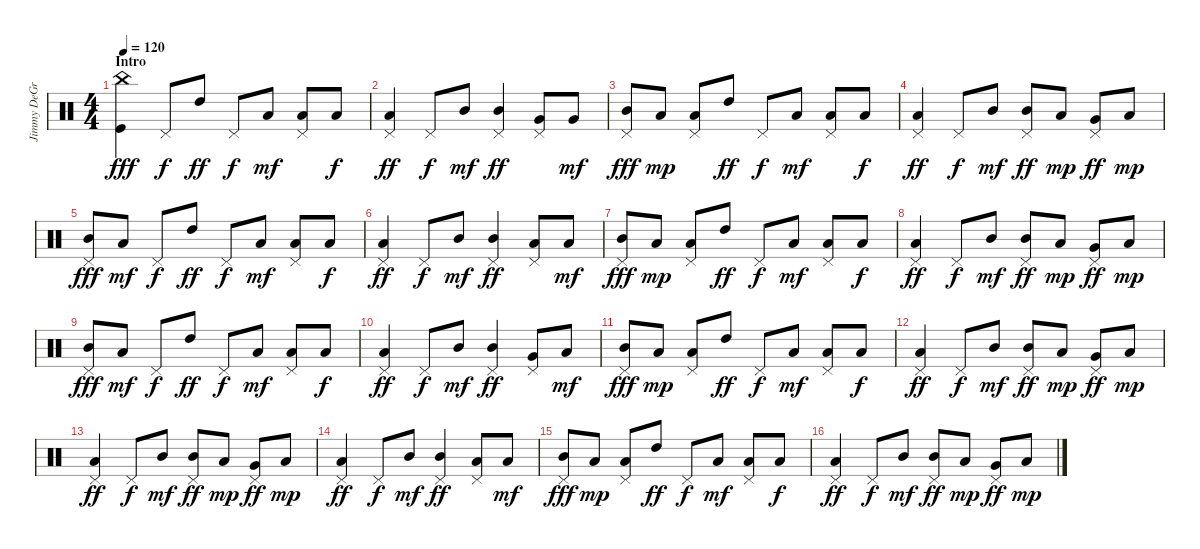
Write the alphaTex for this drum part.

\track ("Jimmy DeGrasso" "Jimmy DeGr") {instrument percussion}
\staff {score}
\articulation defaults
\ts (4 4)
\section ("" "Intro")
\tempo 120
\clef neutral
\ks c
("Kick (hit)" "China (hit)").4{dy fff} "Pedal Hi-Hat (hit)".8{dy f} "High Tom (hit)".8{dy ff} "Pedal Hi-Hat (hit)".8{dy f} "Low Floor Tom (hit)".8{dy mf} ("Low Floor Tom (hit)" "Pedal Hi-Hat (hit)").8 "Low Floor Tom (hit)".8{dy f} |
("Low Floor Tom (hit)" "Pedal Hi-Hat (hit)").4{dy ff} "Pedal Hi-Hat (hit)".8{dy f} "Mid Tom (hit)".8{dy mf} ("Mid Tom (hit)" "Pedal Hi-Hat (hit)").4{dy ff} ("Very Low Tom (hit)" "Pedal Hi-Hat (hit)").8 "Very Low Tom (hit)".8{dy mf} |
("Mid Tom (hit)" "Pedal Hi-Hat (hit)").8{dy fff} "Low Floor Tom (hit)".8{dy mp} ("Low Floor Tom (hit)" "Pedal Hi-Hat (hit)").8 "High Tom (hit)".8{dy ff} "Pedal Hi-Hat (hit)".8{dy f} "Low Floor Tom (hit)".8{dy mf} ("Low Floor Tom (hit)" "Pedal Hi-Hat (hit)").8 "Low Floor Tom (hit)".8{dy f} |
("Low Floor Tom (hit)" "Pedal Hi-Hat (hit)").4{dy ff} "Pedal Hi-Hat (hit)".8{dy f} "Mid Tom (hit)".8{dy mf} ("Mid Tom (hit)" "Pedal Hi-Hat (hit)").8{dy ff} "Low Floor Tom (hit)".8{dy mp} ("Very Low Tom (hit)" "Pedal Hi-Hat (hit)").8{dy ff} "Low Floor Tom (hit)".8{dy mp} |
("Mid Tom (hit)" "Pedal Hi-Hat (hit)").8{dy fff} "Low Floor Tom (hit)".8{dy mf} "Pedal Hi-Hat (hit)".8{dy f} "High Tom (hit)".8{dy ff} "Pedal Hi-Hat (hit)".8{dy f} "Low Floor Tom (hit)".8{dy mf} ("Low Floor Tom (hit)" "Pedal Hi-Hat (hit)").8 "Low Floor Tom (hit)".8{dy f} |
("Low Floor Tom (hit)" "Pedal Hi-Hat (hit)").4{dy ff} "Pedal Hi-Hat (hit)".8{dy f} "Mid Tom (hit)".8{dy mf} ("Mid Tom (hit)" "Pedal Hi-Hat (hit)").4{dy ff} ("Low Tom (hit)" "Pedal Hi-Hat (hit)").8 "Low Floor Tom (hit)".8{dy mf} |
("Mid Tom (hit)" "Pedal Hi-Hat (hit)").8{dy fff} "Low Floor Tom (hit)".8{dy mp} ("Low Floor Tom (hit)" "Pedal Hi-Hat (hit)").8 "High Tom (hit)".8{dy ff} "Pedal Hi-Hat (hit)".8{dy f} "Low Floor Tom (hit)".8{dy mf} ("Low Floor Tom (hit)" "Pedal Hi-Hat (hit)").8 "Low Floor Tom (hit)".8{dy f} |
("Low Floor Tom (hit)" "Pedal Hi-Hat (hit)").4{dy ff} "Pedal Hi-Hat (hit)".8{dy f} "Mid Tom (hit)".8{dy mf} ("Mid Tom (hit)" "Pedal Hi-Hat (hit)").8{dy ff} "Low Floor Tom (hit)".8{dy mp} ("Very Low Tom (hit)" "Pedal Hi-Hat (hit)").8{dy ff} "Low Floor Tom (hit)".8{dy mp} |
("Mid Tom (hit)" "Pedal Hi-Hat (hit)").8{dy fff} "Low Floor Tom (hit)".8{dy mf} "Pedal Hi-Hat (hit)".8{dy f} "High Tom (hit)".8{dy ff} "Pedal Hi-Hat (hit)".8{dy f} "Low Floor Tom (hit)".8{dy mf} ("Low Floor Tom (hit)" "Pedal Hi-Hat (hit)").8 "Low Floor Tom (hit)".8{dy f} |
("Low Floor Tom (hit)" "Pedal Hi-Hat (hit)").4{dy ff} "Pedal Hi-Hat (hit)".8{dy f} "Mid Tom (hit)".8{dy mf} ("Mid Tom (hit)" "Pedal Hi-Hat (hit)").4{dy ff} ("Very Low Tom (hit)" "Pedal Hi-Hat (hit)").8 "Low Floor Tom (hit)".8{dy mf} |
("Mid Tom (hit)" "Pedal Hi-Hat (hit)").8{dy fff} "Low Floor Tom (hit)".8{dy mp} ("Low Floor Tom (hit)" "Pedal Hi-Hat (hit)").8 "High Tom (hit)".8{dy ff} "Pedal Hi-Hat (hit)".8{dy f} "Low Floor Tom (hit)".8{dy mf} ("Low Floor Tom (hit)" "Pedal Hi-Hat (hit)").8 "Low Floor Tom (hit)".8{dy f} |
("Low Floor Tom (hit)" "Pedal Hi-Hat (hit)").4{dy ff} "Pedal Hi-Hat (hit)".8{dy f} "Mid Tom (hit)".8{dy mf} ("Mid Tom (hit)" "Pedal Hi-Hat (hit)").8{dy ff} "Low Floor Tom (hit)".8{dy mp} ("Very Low Tom (hit)" "Pedal Hi-Hat (hit)").8{dy ff} "Low Floor Tom (hit)".8{dy mp} |
("Low Floor Tom (hit)" "Pedal Hi-Hat (hit)").4{dy ff} "Pedal Hi-Hat (hit)".8{dy f} "Mid Tom (hit)".8{dy mf} ("Mid Tom (hit)" "Pedal Hi-Hat (hit)").8{dy ff} "Low Floor Tom (hit)".8{dy mp} ("Very Low Tom (hit)" "Pedal Hi-Hat (hit)").8{dy ff} "Low Floor Tom (hit)".8{dy mp} |
("Low Floor Tom (hit)" "Pedal Hi-Hat (hit)").4{dy ff} "Pedal Hi-Hat (hit)".8{dy f} "Mid Tom (hit)".8{dy mf} ("Mid Tom (hit)" "Pedal Hi-Hat (hit)").4{dy ff} ("Low Tom (hit)" "Pedal Hi-Hat (hit)").8 "Low Floor Tom (hit)".8{dy mf} |
("Mid Tom (hit)" "Pedal Hi-Hat (hit)").8{dy fff} "Low Floor Tom (hit)".8{dy mp} ("Low Floor Tom (hit)" "Pedal Hi-Hat (hit)").8 "High Tom (hit)".8{dy ff} "Pedal Hi-Hat (hit)".8{dy f} "Low Floor Tom (hit)".8{dy mf} ("Low Floor Tom (hit)" "Pedal Hi-Hat (hit)").8 "Low Floor Tom (hit)".8{dy f} |
("Low Floor Tom (hit)" "Pedal Hi-Hat (hit)").4{dy ff} "Pedal Hi-Hat (hit)".8{dy f} "Mid Tom (hit)".8{dy mf} ("Mid Tom (hit)" "Pedal Hi-Hat (hit)").8{dy ff} "Low Floor Tom (hit)".8{dy mp} ("Very Low Tom (hit)" "Pedal Hi-Hat (hit)").8{dy ff} "Low Floor Tom (hit)".8{dy mp}
